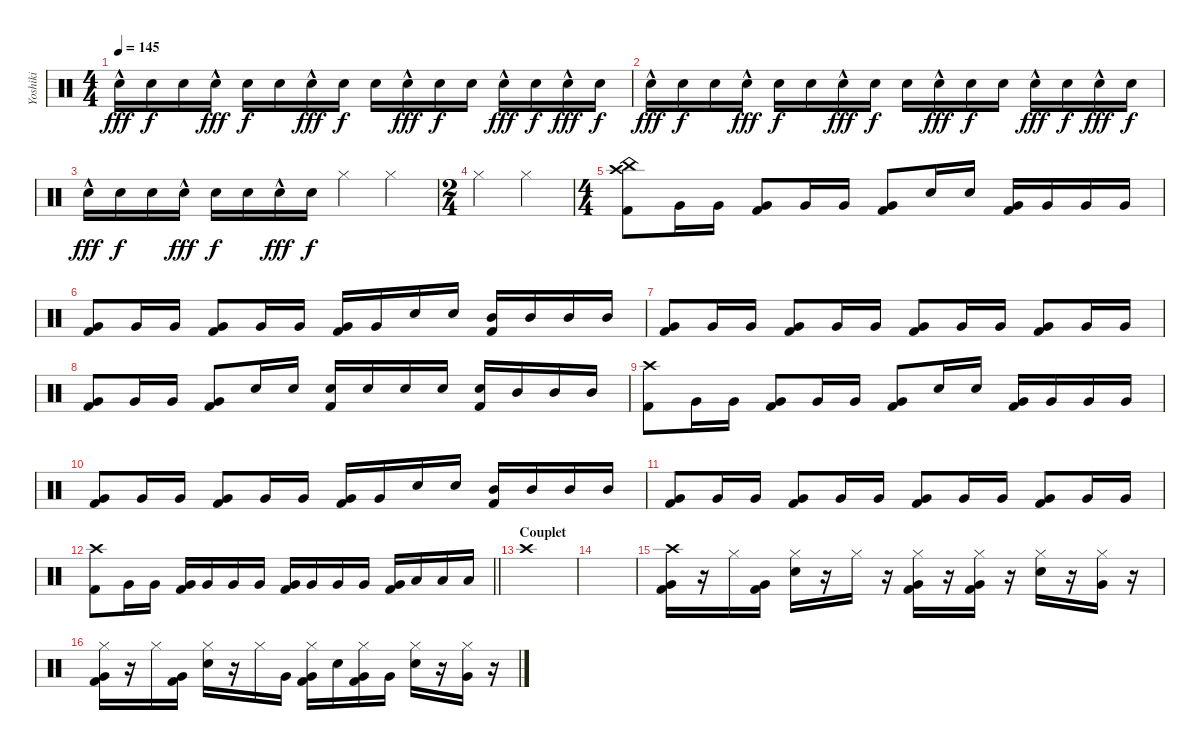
\track ("Yoshiki" "Yoshiki") {instrument percussion}
\staff {score}
\articulation defaults
\ts (4 4)
\tempo 145
\clef neutral
\ks c "Snare (hit) 2"{hac}.16{dy fff} "Snare (hit) 2".16{dy f} "Snare (hit) 2".16 "Snare (hit) 2"{hac}.16{dy fff} "Snare (hit) 2".16{dy f} "Snare (hit) 2".16 "Snare (hit) 2"{hac}.16{dy fff} "Snare (hit) 2".16{dy f} "Snare (hit) 2".16 "Snare (hit) 2"{hac}.16{dy fff} "Snare (hit) 2".16{dy f} "Snare (hit) 2".16 "Snare (hit) 2"{hac}.16{dy fff} "Snare (hit) 2".16{dy f} "Snare (hit) 2"{hac}.16{dy fff} "Snare (hit) 2".16{dy f}
|
"Snare (hit) 2"{hac}.16{dy fff} "Snare (hit) 2".16{dy f} "Snare (hit) 2".16 "Snare (hit) 2"{hac}.16{dy fff} "Snare (hit) 2".16{dy f} "Snare (hit) 2".16 "Snare (hit) 2"{hac}.16{dy fff} "Snare (hit) 2".16{dy f} "Snare (hit) 2".16 "Snare (hit) 2"{hac}.16{dy fff} "Snare (hit) 2".16{dy f} "Snare (hit) 2".16 "Snare (hit) 2"{hac}.16{dy fff} "Snare (hit) 2".16{dy f} "Snare (hit) 2"{hac}.16{dy fff} "Snare (hit) 2".16{dy f} |
"Snare (hit) 2"{hac}.16{dy fff} "Snare (hit) 2".16{dy f} "Snare (hit) 2".16 "Snare (hit) 2"{hac}.16{dy fff} "Snare (hit) 2".16{dy f} "Snare (hit) 2".16 "Snare (hit) 2"{hac}.16{dy fff} "Snare (hit) 2".16{dy f} "Hi-Hat (closed)".4 "Hi-Hat (closed)".4 |
\ts (2 4)
"Hi-Hat (closed)".4 "Hi-Hat (closed)".4 |
\ts (4 4)
("Crash high (hit)" "China (hit)" "Kick (hit) 2").8 "Very Low Tom (hit)".16 "Very Low Tom (hit)".16 ("Very Low Tom (hit)" "Kick (hit) 2").8 "Very Low Tom (hit)".16 "Very Low Tom (hit)".16 ("Very Low Tom (hit)" "Kick (hit) 2").8 "Snare (hit) 2".16 "Snare (hit) 2".16 ("Very Low Tom (hit)" "Kick (hit) 2").16 "Very Low Tom (hit)".16 "Very Low Tom (hit)".16 "Very Low Tom (hit)".16 |
("Very Low Tom (hit)" "Kick (hit) 2").8 "Very Low Tom (hit)".16 "Very Low Tom (hit)".16 ("Very Low Tom (hit)" "Kick (hit) 2").8 "Very Low Tom (hit)".16 "Very Low Tom (hit)".16 ("Very Low Tom (hit)" "Kick (hit) 2").16 "Very Low Tom (hit)".16 "Snare (hit) 2".16 "Snare (hit) 2".16 ("Mid Tom (hit)" "Kick (hit) 2").16 "Mid Tom (hit)".16 "Mid Tom (hit)".16 "Mid Tom (hit)".16 |
("Very Low Tom (hit)" "Kick (hit) 2").8 "Very Low Tom (hit)".16 "Very Low Tom (hit)".16 ("Very Low Tom (hit)" "Kick (hit) 2").8 "Very Low Tom (hit)".16 "Very Low Tom (hit)".16 ("Very Low Tom (hit)" "Kick (hit) 2").8 "Very Low Tom (hit)".16 "Very Low Tom (hit)".16 ("Very Low Tom (hit)" "Kick (hit) 2").8 "Very Low Tom (hit)".16 "Very Low Tom (hit)".16 |
("Very Low Tom (hit)" "Kick (hit) 2").8 "Very Low Tom (hit)".16 "Very Low Tom (hit)".16 ("Very Low Tom (hit)" "Kick (hit) 2").8 "Snare (hit) 2".16 "Snare (hit) 2".16 ("Snare (hit) 2" "Kick (hit) 2").16 "Snare (hit) 2".16 "Snare (hit) 2".16 "Snare (hit) 2".16 ("Snare (hit) 2" "Kick (hit) 2").16 "Mid Tom (hit)".16 "Mid Tom (hit)".16 "Mid Tom (hit)".16 |
("Crash high (hit)" "Kick (hit) 2").8 "Very Low Tom (hit)".16 "Very Low Tom (hit)".16 ("Very Low Tom (hit)" "Kick (hit) 2").8 "Very Low Tom (hit)".16 "Very Low Tom (hit)".16 ("Very Low Tom (hit)" "Kick (hit) 2").8 "Snare (hit) 2".16 "Snare (hit) 2".16 ("Very Low Tom (hit)" "Kick (hit) 2").16 "Very Low Tom (hit)".16 "Very Low Tom (hit)".16 "Very Low Tom (hit)".16 |
("Very Low Tom (hit)" "Kick (hit) 2").8 "Very Low Tom (hit)".16 "Very Low Tom (hit)".16 ("Very Low Tom (hit)" "Kick (hit) 2").8 "Very Low Tom (hit)".16 "Very Low Tom (hit)".16 ("Very Low Tom (hit)" "Kick (hit) 2").16 "Very Low Tom (hit)".16 "Snare (hit) 2".16 "Snare (hit) 2".16 ("Mid Tom (hit)" "Kick (hit) 2").16 "Mid Tom (hit)".16 "Mid Tom (hit)".16 "Mid Tom (hit)".16 |
("Very Low Tom (hit)" "Kick (hit) 2").8 "Very Low Tom (hit)".16 "Very Low Tom (hit)".16 ("Very Low Tom (hit)" "Kick (hit) 2").8 "Very Low Tom (hit)".16 "Very Low Tom (hit)".16 ("Very Low Tom (hit)" "Kick (hit) 2").8 "Very Low Tom (hit)".16 "Very Low Tom (hit)".16 ("Very Low Tom (hit)" "Kick (hit) 2").8 "Very Low Tom (hit)".16 "Very Low Tom (hit)".16 |
\barLineRight lightlight
("Crash high (hit)" "Kick (hit) 2").8 "Very Low Tom (hit)".16 "Very Low Tom (hit)".16 ("Very Low Tom (hit)" "Kick (hit) 2").16 "Very Low Tom (hit)".16 "Very Low Tom (hit)".16 "Very Low Tom (hit)".16 ("Very Low Tom (hit)" "Kick (hit) 2").16 "Very Low Tom (hit)".16 "Very Low Tom (hit)".16 "Very Low Tom (hit)".16 ("Very Low Tom (hit)" "Kick (hit) 2").16 "Low Floor Tom (hit)".16 "Low Floor Tom (hit)".16 "Low Floor Tom (hit)".16 |
\section ("" "Couplet")
"Crash high (hit)".1 |
|
("Crash high (hit)" "Very Low Tom (hit)" "Kick (hit) 2").16 r.16 "Hi-Hat (closed)".16 ("Very Low Tom (hit)" "Kick (hit) 2").16 ("Hi-Hat (closed)" "Snare (hit) 2").16 r.16 "Hi-Hat (closed)".16 r.16 ("Hi-Hat (closed)" "Very Low Tom (hit)" "Kick (hit) 2").16 r.16 ("Hi-Hat (closed)" "Very Low Tom (hit)" "Kick (hit) 2").16 r.16 ("Hi-Hat (closed)" "Snare (hit) 2").16 r.16 ("Hi-Hat (closed)" "Very Low Tom (hit)").16 r.16 |
("Hi-Hat (closed)" "Very Low Tom (hit)" "Kick (hit) 2").16 r.16 "Hi-Hat (closed)".16 ("Very Low Tom (hit)" "Kick (hit) 2").16 ("Hi-Hat (closed)" "Snare (hit) 2").16 r.16 "Hi-Hat (closed)".16 "Very Low Tom (hit)".16 ("Hi-Hat (closed)" "Very Low Tom (hit)" "Kick (hit) 2").16 "Snare (hit) 2".16 ("Hi-Hat (closed)" "Very Low Tom (hit)" "Kick (hit) 2").16 "Very Low Tom (hit)".16 ("Hi-Hat (closed)" "Snare (hit) 2").16 r.16 ("Hi-Hat (closed)" "Very Low Tom (hit)").16 r.16
